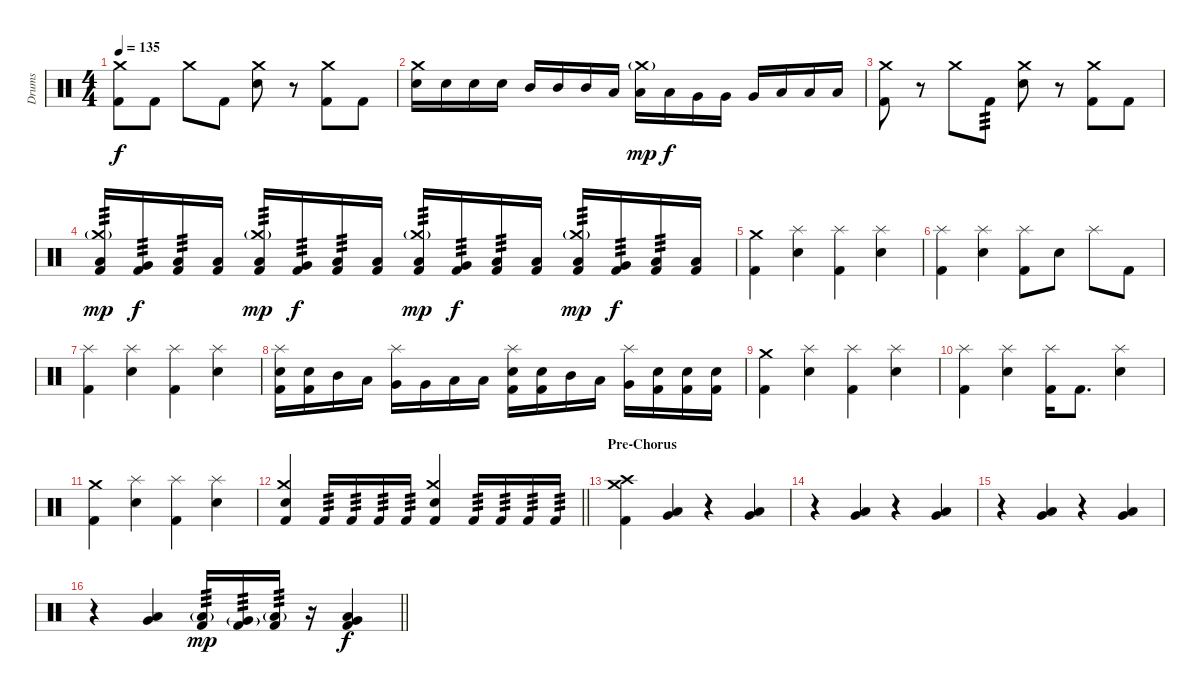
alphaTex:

\track ("Drums" "Drums") {instrument percussion}
\staff {score}
\articulation defaults
\ts (4 4)
\tempo 135
\clef neutral
\ks c
("Kick (hit) 2" "Crash medium (hit)").8{dy f} "Kick (hit) 2".8 "Crash medium (hit)".8 "Kick (hit) 2".8 ("Snare (hit) 2" "Crash medium (hit)").8 r.8 ("Kick (hit) 2" "Crash medium (hit)").8 "Kick (hit) 2".8 |
("Snare (hit) 2" "Crash medium (hit)").16 "Snare (hit) 2".16 "Snare (hit) 2".16 "Snare (hit) 2".16 "Mid Tom (hit)".16 "Mid Tom (hit)".16 "Mid Tom (hit)".16 "Low Tom (hit)".16 ("Low Tom (hit)" "Crash medium (hit)"{g}).16{dy mp} "Low Tom (hit)".16{dy f} "Very Low Tom (hit)".16 "Very Low Tom (hit)".16 "Very Low Tom (hit)".16 "Low Floor Tom (hit)".16 "Low Floor Tom (hit)".16 "Low Floor Tom (hit)".16 |
("Kick (hit) 2" "Crash medium (hit)").8 r.8 "Crash medium (hit)".8 "Kick (hit) 2".8{tp 3} ("Snare (hit) 2" "Crash medium (hit)").8 r.8 ("Kick (hit) 2" "Crash medium (hit)").8 "Kick (hit) 2".8 |
("Kick (hit) 2" "Low Tom (hit)" "Crash medium (hit)"{g}).16{tp 3 dy mp} ("Kick (hit) 2" "Very Low Tom (hit)").16{tp 3 dy f} ("Kick (hit) 2" "Low Floor Tom (hit)").16{tp 3} ("Kick (hit) 2" "Low Floor Tom (hit)").16 ("Kick (hit) 2" "Low Tom (hit)" "Crash medium (hit)"{g}).16{tp 3 dy mp} ("Kick (hit) 2" "Very Low Tom (hit)").16{tp 3 dy f} ("Kick (hit) 2" "Low Floor Tom (hit)").16{tp 3} ("Kick (hit) 2" "Low Floor Tom (hit)").16 ("Kick (hit) 2" "Low Tom (hit)" "Crash medium (hit)"{g}).16{tp 3 dy mp} ("Kick (hit) 2" "Very Low Tom (hit)").16{tp 3 dy f} ("Kick (hit) 2" "Low Floor Tom (hit)").16{tp 3} ("Kick (hit) 2" "Low Floor Tom (hit)").16 ("Kick (hit) 2" "Low Tom (hit)" "Crash medium (hit)"{g}).16{tp 3 dy mp} ("Kick (hit) 2" "Very Low Tom (hit)").16{tp 3 dy f} ("Kick (hit) 2" "Low Floor Tom (hit)").16{tp 3} ("Kick (hit) 2" "Low Floor Tom (hit)").16 |
("Kick (hit) 2" "Crash medium (hit)").4 ("Snare (hit) 2" "Splash (hit)").4 ("Kick (hit) 2" "Splash (hit)").4 ("Snare (hit) 2" "Splash (hit)").4 |
("Kick (hit) 2" "Splash (hit)").4 ("Snare (hit) 2" "Splash (hit)").4 ("Kick (hit) 2" "Splash (hit)").8 "Snare (hit) 2".8 "Splash (hit)".8 "Kick (hit) 2".8 |
("Kick (hit) 2" "Splash (hit)").4 ("Snare (hit) 2" "Splash (hit)").4 ("Kick (hit) 2" "Splash (hit)").4 ("Snare (hit) 2" "Splash (hit)").4 |
("Kick (hit) 2" "Snare (hit) 2" "Splash (hit)").16 ("Kick (hit) 2" "Snare (hit) 2").16 "Mid Tom (hit)".16 "Low Tom (hit)".16 ("Very Low Tom (hit)" "Splash (hit)").16 "Very Low Tom (hit)".16 "Low Floor Tom (hit)".16 "Low Floor Tom (hit)".16 ("Kick (hit) 2" "Snare (hit) 2" "Splash (hit)").16 ("Kick (hit) 2" "Snare (hit) 2").16 "Mid Tom (hit)".16 "Low Tom (hit)".16 ("Very Low Tom (hit)" "Splash (hit)").16 ("Kick (hit) 2" "Snare (hit) 2").16 ("Kick (hit) 2" "Snare (hit) 2").16 ("Kick (hit) 2" "Snare (hit) 2").16 |
("Kick (hit) 2" "Crash medium (hit)").4 ("Snare (hit) 2" "Splash (hit)").4 ("Kick (hit) 2" "Splash (hit)").4 ("Snare (hit) 2" "Splash (hit)").4 |
("Kick (hit) 2" "Splash (hit)").4 ("Snare (hit) 2" "Splash (hit)").4 ("Kick (hit) 2" "Splash (hit)").16 "Kick (hit) 2".8{d} ("Snare (hit) 2" "Splash (hit)").4 |
("Kick (hit) 2" "Crash medium (hit)").4 ("Snare (hit) 2" "Splash (hit)").4 ("Kick (hit) 2" "Splash (hit)").4 ("Snare (hit) 2" "Splash (hit)").4 |
\barLineRight lightlight
("Kick (hit) 2" "Snare (hit) 2" "Crash medium (hit)").4 "Kick (hit) 2".16{tp 3} "Kick (hit) 2".16{tp 3} "Kick (hit) 2".16{tp 3} "Kick (hit) 2".16{tp 3} ("Kick (hit) 2" "Snare (hit) 2" "Crash medium (hit)").4 "Kick (hit) 2".16{tp 3} "Kick (hit) 2".16{tp 3} "Kick (hit) 2".16{tp 3} "Kick (hit) 2".16{tp 3} |
\section ("" "Pre-Chorus")
("Kick (hit) 2" "Crash medium (hit)" "Crash high (hit)").4 ("Low Tom (hit)" "Very Low Tom (hit)").4 r.4 ("Low Tom (hit)" "Very Low Tom (hit)").4 |
r.4 ("Low Tom (hit)" "Very Low Tom (hit)").4 r.4 ("Low Tom (hit)" "Very Low Tom (hit)").4 |
r.4 ("Low Tom (hit)" "Very Low Tom (hit)").4 r.4 ("Low Tom (hit)" "Very Low Tom (hit)").4 |
\barLineRight lightlight
r.4 ("Low Tom (hit)" "Very Low Tom (hit)").4 ("Kick (hit) 2" "Low Tom (hit)"{g}).16{tp 3 dy mp} ("Kick (hit) 2" "Very Low Tom (hit)"{g}).16{tp 3} ("Kick (hit) 2" "Low Floor Tom (hit)"{g}).16{tp 3} r.16 ("Kick (hit) 2" "Low Tom (hit)" "Very Low Tom (hit)").4{dy f}
